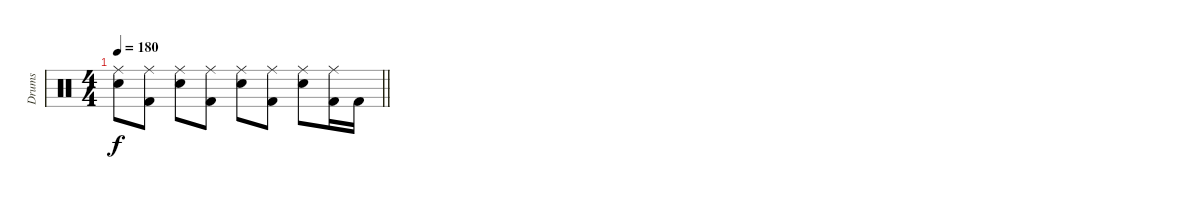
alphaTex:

\track ("Drums" "Drums") {instrument percussion}
\staff {score}
\articulation defaults
\ts (4 4)
\tempo 180
\clef neutral
\barLineRight lightlight
\ks c
("Ride (middle)" "Electric Snare (hit)").8{dy f} ("Ride (middle)" "Kick (hit) 2").8 ("Ride (middle)" "Electric Snare (hit)").8 ("Ride (middle)" "Kick (hit) 2").8 ("Ride (middle)" "Electric Snare (hit)").8 ("Ride (middle)" "Kick (hit) 2").8 ("Ride (middle)" "Electric Snare (hit)").8 ("Ride (middle)" "Kick (hit) 2").16 "Kick (hit) 2".16
